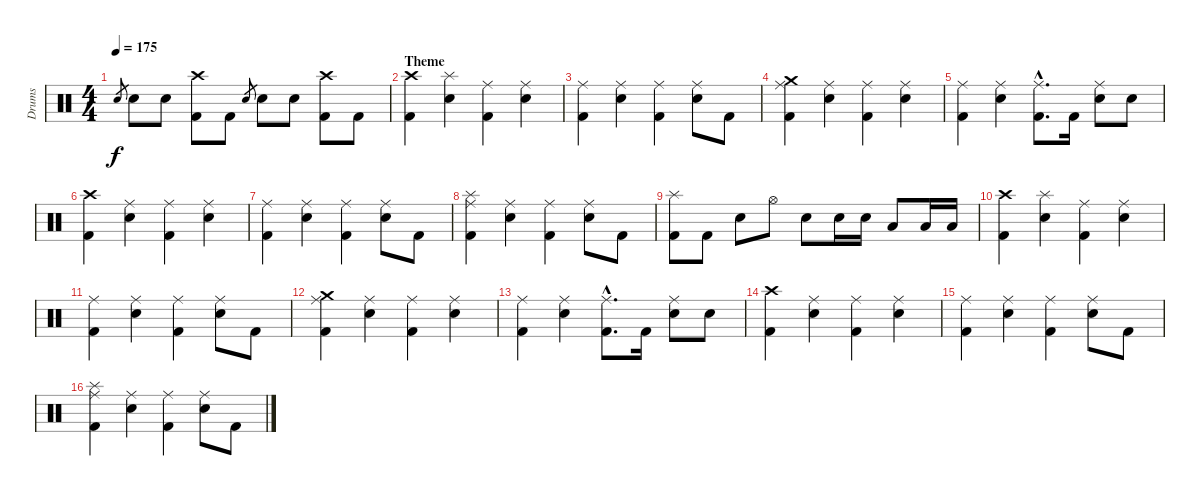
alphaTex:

\track ("Drums" "Drums") {instrument percussion}
\staff {score}
\articulation defaults
\ts (4 4)
\tempo 175
\clef neutral
\ks c "Snare (hit) 2".8{gr dy f} "Snare (hit) 2".8 "Snare (hit) 2".8
("Crash high (hit)" "Kick (hit) 2").8 "Kick (hit) 2".8 "Snare (hit) 2".8{gr} "Snare (hit) 2".8 "Snare (hit) 2".8 ("Crash high (hit)" "Kick (hit) 2").8 "Kick (hit) 2".8 |
\section ("" "Theme")
("Crash high (hit)" "Kick (hit) 2").4 ("Splash (hit)" "Snare (hit) 2").4 ("Ride (middle)" "Kick (hit) 2").4 ("Ride (middle)" "Snare (hit) 2").4 |
("Ride (middle)" "Kick (hit) 2").4 ("Ride (middle)" "Snare (hit) 2").4 ("Ride (middle)" "Kick (hit) 2").4 ("Ride (middle)" "Snare (hit) 2").8 "Kick (hit) 2".8 |
("Crash medium (hit)" "Ride (middle)" "Kick (hit) 2").4 ("Ride (middle)" "Snare (hit) 2").4 ("Ride (middle)" "Kick (hit) 2").4 ("Ride (middle)" "Snare (hit) 2").4 |
("Ride (middle)" "Kick (hit) 2").4 ("Ride (middle)" "Snare (hit) 2").4 ("Ride (middle)"{hac} "Kick (hit) 2"{hac}).8{d} "Kick (hit) 2".16 ("Ride (middle)" "Snare (hit) 2").8 "Snare (hit) 2".8 |
("Crash high (hit)" "Kick (hit) 2").4 ("Ride (middle)" "Snare (hit) 2").4 ("Ride (middle)" "Kick (hit) 2").4 ("Ride (middle)" "Snare (hit) 2").4 |
("Ride (middle)" "Kick (hit) 2").4 ("Ride (middle)" "Snare (hit) 2").4 ("Ride (middle)" "Kick (hit) 2").4 ("Ride (middle)" "Snare (hit) 2").8 "Kick (hit) 2".8 |
("Splash (hit)" "Ride (middle)" "Kick (hit) 2").4 ("Ride (middle)" "Snare (hit) 2").4 ("Ride (middle)" "Kick (hit) 2").4 ("Ride (middle)" "Snare (hit) 2").8 "Kick (hit) 2".8 |
("Splash (hit)" "Kick (hit) 2").8 "Kick (hit) 2".8 "Snare (hit) 2".8 "Hi-Hat (open)".8 "Snare (hit) 2".8 "Snare (hit) 2".16 "Snare (hit) 2".16 "Low Tom (hit)".8 "Low Tom (hit)".16 "Low Tom (hit)".16 |
("Crash high (hit)" "Kick (hit) 2").4 ("Splash (hit)" "Snare (hit) 2").4 ("Ride (middle)" "Kick (hit) 2").4 ("Ride (middle)" "Snare (hit) 2").4 |
("Ride (middle)" "Kick (hit) 2").4 ("Ride (middle)" "Snare (hit) 2").4 ("Ride (middle)" "Kick (hit) 2").4 ("Ride (middle)" "Snare (hit) 2").8 "Kick (hit) 2".8 |
("Crash medium (hit)" "Ride (middle)" "Kick (hit) 2").4 ("Ride (middle)" "Snare (hit) 2").4 ("Ride (middle)" "Kick (hit) 2").4 ("Ride (middle)" "Snare (hit) 2").4 |
("Ride (middle)" "Kick (hit) 2").4 ("Ride (middle)" "Snare (hit) 2").4 ("Ride (middle)"{hac} "Kick (hit) 2"{hac}).8{d} "Kick (hit) 2".16 ("Ride (middle)" "Snare (hit) 2").8 "Snare (hit) 2".8 |
("Crash high (hit)" "Kick (hit) 2").4 ("Ride (middle)" "Snare (hit) 2").4 ("Ride (middle)" "Kick (hit) 2").4 ("Ride (middle)" "Snare (hit) 2").4 |
("Ride (middle)" "Kick (hit) 2").4 ("Ride (middle)" "Snare (hit) 2").4 ("Ride (middle)" "Kick (hit) 2").4 ("Ride (middle)" "Snare (hit) 2").8 "Kick (hit) 2".8 |
("Splash (hit)" "Ride (middle)" "Kick (hit) 2").4 ("Ride (middle)" "Snare (hit) 2").4 ("Ride (middle)" "Kick (hit) 2").4 ("Ride (middle)" "Snare (hit) 2").8 "Kick (hit) 2".8
